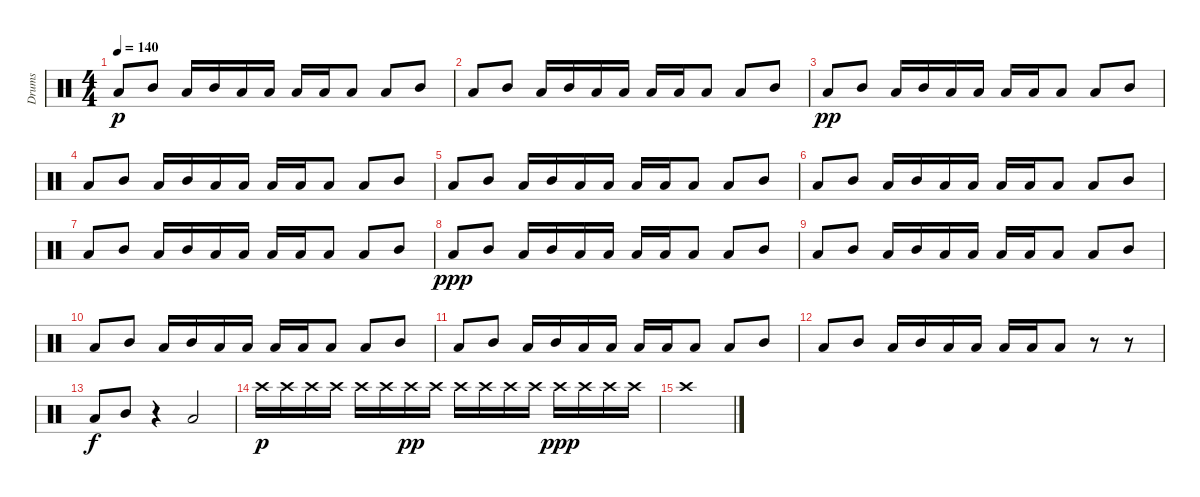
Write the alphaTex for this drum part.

\track ("Drums" "Drums") {instrument percussion}
\staff {score}
\articulation defaults
\ts (4 4)
\tempo 140
\clef neutral
\ks c "Low Tom (hit)".8{dy p} "Mid Tom (hit)".8 "Low Tom (hit)".16 "Mid Tom (hit)".16 "Low Tom (hit)".16 "Low Tom (hit)".16 "Low Tom (hit)".16 "Low Tom (hit)".16 "Low Tom (hit)".8 "Low Tom (hit)".8 "Mid Tom (hit)".8
|
"Low Tom (hit)".8 "Mid Tom (hit)".8 "Low Tom (hit)".16 "Mid Tom (hit)".16 "Low Tom (hit)".16 "Low Tom (hit)".16 "Low Tom (hit)".16 "Low Tom (hit)".16 "Low Tom (hit)".8 "Low Tom (hit)".8 "Mid Tom (hit)".8 |
"Low Tom (hit)".8{dy pp} "Mid Tom (hit)".8 "Low Tom (hit)".16 "Mid Tom (hit)".16 "Low Tom (hit)".16 "Low Tom (hit)".16 "Low Tom (hit)".16 "Low Tom (hit)".16 "Low Tom (hit)".8 "Low Tom (hit)".8 "Mid Tom (hit)".8 |
"Low Tom (hit)".8 "Mid Tom (hit)".8 "Low Tom (hit)".16 "Mid Tom (hit)".16 "Low Tom (hit)".16 "Low Tom (hit)".16 "Low Tom (hit)".16 "Low Tom (hit)".16 "Low Tom (hit)".8 "Low Tom (hit)".8 "Mid Tom (hit)".8 |
"Low Tom (hit)".8 "Mid Tom (hit)".8 "Low Tom (hit)".16 "Mid Tom (hit)".16 "Low Tom (hit)".16 "Low Tom (hit)".16 "Low Tom (hit)".16 "Low Tom (hit)".16 "Low Tom (hit)".8 "Low Tom (hit)".8 "Mid Tom (hit)".8 |
"Low Tom (hit)".8 "Mid Tom (hit)".8 "Low Tom (hit)".16 "Mid Tom (hit)".16 "Low Tom (hit)".16 "Low Tom (hit)".16 "Low Tom (hit)".16 "Low Tom (hit)".16 "Low Tom (hit)".8 "Low Tom (hit)".8 "Mid Tom (hit)".8 |
"Low Tom (hit)".8 "Mid Tom (hit)".8 "Low Tom (hit)".16 "Mid Tom (hit)".16 "Low Tom (hit)".16 "Low Tom (hit)".16 "Low Tom (hit)".16 "Low Tom (hit)".16 "Low Tom (hit)".8 "Low Tom (hit)".8 "Mid Tom (hit)".8 |
"Low Tom (hit)".8{dy ppp} "Mid Tom (hit)".8 "Low Tom (hit)".16 "Mid Tom (hit)".16 "Low Tom (hit)".16 "Low Tom (hit)".16 "Low Tom (hit)".16 "Low Tom (hit)".16 "Low Tom (hit)".8 "Low Tom (hit)".8 "Mid Tom (hit)".8 |
"Low Tom (hit)".8 "Mid Tom (hit)".8 "Low Tom (hit)".16 "Mid Tom (hit)".16 "Low Tom (hit)".16 "Low Tom (hit)".16 "Low Tom (hit)".16 "Low Tom (hit)".16 "Low Tom (hit)".8 "Low Tom (hit)".8 "Mid Tom (hit)".8 |
"Low Tom (hit)".8 "Mid Tom (hit)".8 "Low Tom (hit)".16 "Mid Tom (hit)".16 "Low Tom (hit)".16 "Low Tom (hit)".16 "Low Tom (hit)".16 "Low Tom (hit)".16 "Low Tom (hit)".8 "Low Tom (hit)".8 "Mid Tom (hit)".8 |
"Low Tom (hit)".8 "Mid Tom (hit)".8 "Low Tom (hit)".16 "Mid Tom (hit)".16 "Low Tom (hit)".16 "Low Tom (hit)".16 "Low Tom (hit)".16 "Low Tom (hit)".16 "Low Tom (hit)".8 "Low Tom (hit)".8 "Mid Tom (hit)".8 |
"Low Tom (hit)".8 "Mid Tom (hit)".8 "Low Tom (hit)".16 "Mid Tom (hit)".16 "Low Tom (hit)".16 "Low Tom (hit)".16 "Low Tom (hit)".16 "Low Tom (hit)".16 "Low Tom (hit)".8 r.8 r.8 |
"Low Tom (hit)".8{dy f} "Mid Tom (hit)".8 r.4 "Low Tom (hit)".2 |
"Crash high (hit)".16{dy p} "Crash high (hit)".16 "Crash high (hit)".16 "Crash high (hit)".16 "Crash high (hit)".16 "Crash high (hit)".16 "Crash high (hit)".16{dy pp} "Crash high (hit)".16 "Crash high (hit)".16 "Crash high (hit)".16 "Crash high (hit)".16 "Crash high (hit)".16 "Crash high (hit)".16{dy ppp} "Crash high (hit)".16 "Crash high (hit)".16 "Crash high (hit)".16 |
"Crash high (hit)".1
